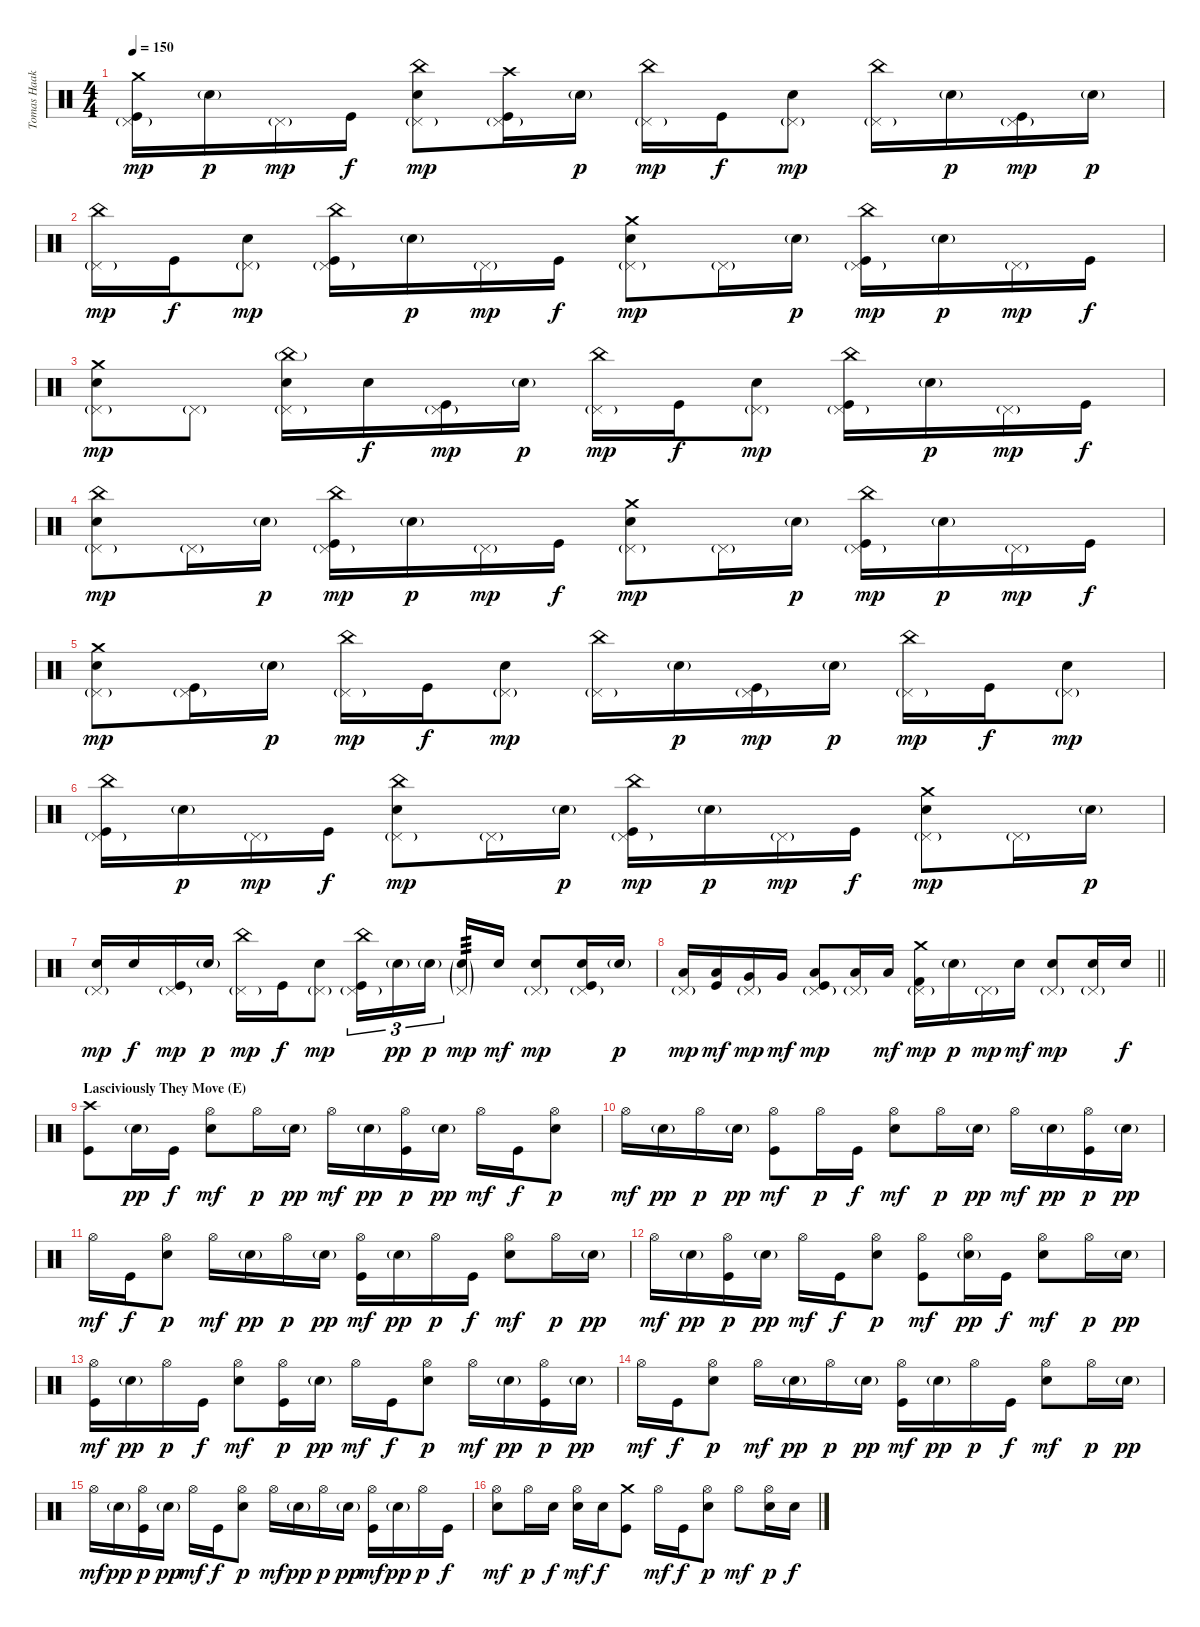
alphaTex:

\track ("Tomas Haake (Drums)" "Tomas Haak") {instrument percussion}
\staff {score}
\articulation defaults
\ts (4 4)
\tempo 150
\clef neutral
\ks c
("Crash medium (hit)" "Pedal Hi-Hat (hit)"{g} "Kick (hit)").16{dy mp} "Electric Snare (hit)"{g}.16{dy p} "Pedal Hi-Hat (hit)"{g}.16{dy mp} "Kick (hit)".16{dy f} ("China (hit)" "Pedal Hi-Hat (hit)"{g} "Electric Snare (hit)").8{dy mp} ("Crash high (hit)" "Pedal Hi-Hat (hit)"{g} "Kick (hit)").16 "Electric Snare (hit)"{g}.16{dy p} ("China (hit)" "Pedal Hi-Hat (hit)"{g}).16{dy mp} "Kick (hit)".16{dy f} ("Pedal Hi-Hat (hit)"{g} "Electric Snare (hit)").8{dy mp} ("China (hit)" "Pedal Hi-Hat (hit)"{g}).16 "Electric Snare (hit)"{g}.16{dy p} ("Pedal Hi-Hat (hit)"{g} "Kick (hit)").16{dy mp} "Electric Snare (hit)"{g}.16{dy p} |
("China (hit)" "Pedal Hi-Hat (hit)"{g}).16{dy mp} "Kick (hit)".16{dy f} ("Pedal Hi-Hat (hit)"{g} "Electric Snare (hit)").8{dy mp} ("China (hit)" "Pedal Hi-Hat (hit)"{g} "Kick (hit)").16 "Electric Snare (hit)"{g}.16{dy p} "Pedal Hi-Hat (hit)"{g}.16{dy mp} "Kick (hit)".16{dy f} ("Crash medium (hit)" "Pedal Hi-Hat (hit)"{g} "Electric Snare (hit)").8{dy mp} "Pedal Hi-Hat (hit)"{g}.16 "Electric Snare (hit)"{g}.16{dy p} ("China (hit)" "Pedal Hi-Hat (hit)"{g} "Kick (hit)").16{dy mp} "Electric Snare (hit)"{g}.16{dy p} "Pedal Hi-Hat (hit)"{g}.16{dy mp} "Kick (hit)".16{dy f} |
("Crash medium (hit)" "Pedal Hi-Hat (hit)"{g} "Electric Snare (hit)").8{dy mp} "Pedal Hi-Hat (hit)"{g}.8 ("China (hit)"{g} "Pedal Hi-Hat (hit)"{g} "Electric Snare (hit)").16 "Electric Snare (hit)".16{dy f} ("Pedal Hi-Hat (hit)"{g} "Kick (hit)").16{dy mp} "Electric Snare (hit)"{g}.16{dy p} ("China (hit)" "Pedal Hi-Hat (hit)"{g}).16{dy mp} "Kick (hit)".16{dy f} ("Pedal Hi-Hat (hit)"{g} "Electric Snare (hit)").8{dy mp} ("China (hit)" "Pedal Hi-Hat (hit)"{g} "Kick (hit)").16 "Electric Snare (hit)"{g}.16{dy p} "Pedal Hi-Hat (hit)"{g}.16{dy mp} "Kick (hit)".16{dy f} |
("China (hit)" "Pedal Hi-Hat (hit)"{g} "Electric Snare (hit)").8{dy mp} "Pedal Hi-Hat (hit)"{g}.16 "Electric Snare (hit)"{g}.16{dy p} ("China (hit)" "Pedal Hi-Hat (hit)"{g} "Kick (hit)").16{dy mp} "Electric Snare (hit)"{g}.16{dy p} "Pedal Hi-Hat (hit)"{g}.16{dy mp} "Kick (hit)".16{dy f} ("Crash medium (hit)" "Pedal Hi-Hat (hit)"{g} "Electric Snare (hit)").8{dy mp} "Pedal Hi-Hat (hit)"{g}.16 "Electric Snare (hit)"{g}.16{dy p} ("China (hit)" "Pedal Hi-Hat (hit)"{g} "Kick (hit)").16{dy mp} "Electric Snare (hit)"{g}.16{dy p} "Pedal Hi-Hat (hit)"{g}.16{dy mp} "Kick (hit)".16{dy f} |
("Crash medium (hit)" "Pedal Hi-Hat (hit)"{g} "Electric Snare (hit)").8{dy mp} ("Pedal Hi-Hat (hit)"{g} "Kick (hit)").16 "Electric Snare (hit)"{g}.16{dy p} ("China (hit)" "Pedal Hi-Hat (hit)"{g}).16{dy mp} "Kick (hit)".16{dy f} ("Pedal Hi-Hat (hit)"{g} "Electric Snare (hit)").8{dy mp} ("China (hit)" "Pedal Hi-Hat (hit)"{g}).16 "Electric Snare (hit)"{g}.16{dy p} ("Pedal Hi-Hat (hit)"{g} "Kick (hit)").16{dy mp} "Electric Snare (hit)"{g}.16{dy p} ("China (hit)" "Pedal Hi-Hat (hit)"{g}).16{dy mp} "Kick (hit)".16{dy f} ("Pedal Hi-Hat (hit)"{g} "Electric Snare (hit)").8{dy mp} |
("China (hit)" "Pedal Hi-Hat (hit)"{g} "Kick (hit)").16 "Electric Snare (hit)"{g}.16{dy p} "Pedal Hi-Hat (hit)"{g}.16{dy mp} "Kick (hit)".16{dy f} ("China (hit)" "Pedal Hi-Hat (hit)"{g} "Electric Snare (hit)").8{dy mp} "Pedal Hi-Hat (hit)"{g}.16 "Electric Snare (hit)"{g}.16{dy p} ("China (hit)" "Pedal Hi-Hat (hit)"{g} "Kick (hit)").16{dy mp} "Electric Snare (hit)"{g}.16{dy p} "Pedal Hi-Hat (hit)"{g}.16{dy mp} "Kick (hit)".16{dy f} ("Crash medium (hit)" "Pedal Hi-Hat (hit)"{g} "Electric Snare (hit)").8{dy mp} "Pedal Hi-Hat (hit)"{g}.16 "Electric Snare (hit)"{g}.16{dy p} |
("Pedal Hi-Hat (hit)"{g} "Electric Snare (hit)").16{dy mp} "Electric Snare (hit)".16{dy f} ("Pedal Hi-Hat (hit)"{g} "Kick (hit)").16{dy mp} "Electric Snare (hit)"{g}.16{dy p} ("China (hit)" "Pedal Hi-Hat (hit)"{g}).16{dy mp} "Kick (hit)".16{dy f} ("Pedal Hi-Hat (hit)"{g} "Electric Snare (hit)").8{dy mp} ("China (hit)" "Pedal Hi-Hat (hit)"{g} "Kick (hit)").16{tu (3 2)} "Electric Snare (hit)"{g}.16{tu (3 2) dy pp} "Electric Snare (hit)"{g}.16{tu (3 2) dy p beam splitsecondary} ("Pedal Hi-Hat (hit)"{g} "Electric Snare (hit)"{g}).16{tp 3 dy mp} "Electric Snare (hit)".16{dy mf} ("Pedal Hi-Hat (hit)"{g} "Electric Snare (hit)").8{dy mp} ("Pedal Hi-Hat (hit)"{g} "Electric Snare (hit)" "Kick (hit)").16 "Electric Snare (hit)"{g}.16{dy p} |
\barLineRight lightlight
("Pedal Hi-Hat (hit)"{g} "Low Tom (hit)").16{dy mp} ("Low Tom (hit)" "Kick (hit)").16{dy mf} ("Pedal Hi-Hat (hit)"{g} "Very Low Tom (hit)").16{dy mp} "Very Low Tom (hit)".16{dy mf} ("Pedal Hi-Hat (hit)"{g} "Low Floor Tom (hit)" "Kick (hit)").8{dy mp} ("Pedal Hi-Hat (hit)"{g} "Low Floor Tom (hit)").16 "Low Floor Tom (hit)".16{dy mf} ("Crash medium (hit)" "Pedal Hi-Hat (hit)"{g} "Kick (hit) 2").16{dy mp} "Electric Snare (hit)"{g}.16{dy p} "Pedal Hi-Hat (hit)"{g}.16{dy mp} "Electric Snare (hit)".16{dy mf} ("Pedal Hi-Hat (hit)"{g} "Electric Snare (hit)").8{dy mp} ("Pedal Hi-Hat (hit)"{g} "Electric Snare (hit)").16 "Electric Snare (hit)".16{dy f} |
\section ("" "Lasciviously They Move (E)")
("Crash high (hit)" "Kick (hit)").8 "Electric Snare (hit)"{g}.16{dy pp} "Kick (hit)".16{dy f} ("Hi-Hat (open)" "Electric Snare (hit)").8{dy mf} "Hi-Hat (open)".16{dy p} "Electric Snare (hit)"{g}.16{dy pp} "Hi-Hat (open)".16{dy mf} "Electric Snare (hit)"{g}.16{dy pp} ("Hi-Hat (open)" "Kick (hit)").16{dy p} "Electric Snare (hit)"{g}.16{dy pp} "Hi-Hat (open)".16{dy mf} "Kick (hit)".16{dy f} ("Hi-Hat (open)" "Electric Snare (hit)").8{dy p} |
"Hi-Hat (open)".16{dy mf} "Electric Snare (hit)"{g}.16{dy pp} "Hi-Hat (open)".16{dy p} "Electric Snare (hit)"{g}.16{dy pp} ("Hi-Hat (open)" "Kick (hit)").8{dy mf} "Hi-Hat (open)".16{dy p} "Kick (hit)".16{dy f} ("Hi-Hat (open)" "Electric Snare (hit)").8{dy mf} "Hi-Hat (open)".16{dy p} "Electric Snare (hit)"{g}.16{dy pp} "Hi-Hat (open)".16{dy mf} "Electric Snare (hit)"{g}.16{dy pp} ("Hi-Hat (open)" "Kick (hit)").16{dy p} "Electric Snare (hit)"{g}.16{dy pp} |
"Hi-Hat (open)".16{dy mf} "Kick (hit)".16{dy f} ("Hi-Hat (open)" "Electric Snare (hit)").8{dy p} "Hi-Hat (open)".16{dy mf} "Electric Snare (hit)"{g}.16{dy pp} "Hi-Hat (open)".16{dy p} "Electric Snare (hit)"{g}.16{dy pp} ("Hi-Hat (open)" "Kick (hit)").16{dy mf} "Electric Snare (hit)"{g}.16{dy pp} "Hi-Hat (open)".16{dy p} "Kick (hit)".16{dy f} ("Hi-Hat (open)" "Electric Snare (hit)").8{dy mf} "Hi-Hat (open)".16{dy p} "Electric Snare (hit)"{g}.16{dy pp} |
"Hi-Hat (open)".16{dy mf} "Electric Snare (hit)"{g}.16{dy pp} ("Hi-Hat (open)" "Kick (hit)").16{dy p} "Electric Snare (hit)"{g}.16{dy pp} "Hi-Hat (open)".16{dy mf} "Kick (hit)".16{dy f} ("Hi-Hat (open)" "Electric Snare (hit)").8{dy p} ("Hi-Hat (open)" "Kick (hit)").8{dy mf} ("Hi-Hat (open)" "Electric Snare (hit)"{g}).16{dy pp} "Kick (hit)".16{dy f} ("Hi-Hat (open)" "Electric Snare (hit)").8{dy mf} "Hi-Hat (open)".16{dy p} "Electric Snare (hit)"{g}.16{dy pp} |
("Hi-Hat (open)" "Kick (hit)").16{dy mf} "Electric Snare (hit)"{g}.16{dy pp} "Hi-Hat (open)".16{dy p} "Kick (hit)".16{dy f} ("Hi-Hat (open)" "Electric Snare (hit)").8{dy mf} ("Hi-Hat (open)" "Kick (hit)").16{dy p} "Electric Snare (hit)"{g}.16{dy pp} "Hi-Hat (open)".16{dy mf} "Kick (hit)".16{dy f} ("Hi-Hat (open)" "Electric Snare (hit)").8{dy p} "Hi-Hat (open)".16{dy mf} "Electric Snare (hit)"{g}.16{dy pp} ("Hi-Hat (open)" "Kick (hit)").16{dy p} "Electric Snare (hit)"{g}.16{dy pp} |
"Hi-Hat (open)".16{dy mf} "Kick (hit)".16{dy f} ("Hi-Hat (open)" "Electric Snare (hit)").8{dy p} "Hi-Hat (open)".16{dy mf} "Electric Snare (hit)"{g}.16{dy pp} "Hi-Hat (open)".16{dy p} "Electric Snare (hit)"{g}.16{dy pp} ("Hi-Hat (open)" "Kick (hit)").16{dy mf} "Electric Snare (hit)"{g}.16{dy pp} "Hi-Hat (open)".16{dy p} "Kick (hit)".16{dy f} ("Hi-Hat (open)" "Electric Snare (hit)").8{dy mf} "Hi-Hat (open)".16{dy p} "Electric Snare (hit)"{g}.16{dy pp} |
"Hi-Hat (open)".16{dy mf} "Electric Snare (hit)"{g}.16{dy pp} ("Hi-Hat (open)" "Kick (hit)").16{dy p} "Electric Snare (hit)"{g}.16{dy pp} "Hi-Hat (open)".16{dy mf} "Kick (hit)".16{dy f} ("Hi-Hat (open)" "Electric Snare (hit)").8{dy p} "Hi-Hat (open)".16{dy mf} "Electric Snare (hit)"{g}.16{dy pp} "Hi-Hat (open)".16{dy p} "Electric Snare (hit)"{g}.16{dy pp} ("Hi-Hat (open)" "Kick (hit)").16{dy mf} "Electric Snare (hit)"{g}.16{dy pp} "Hi-Hat (open)".16{dy p} "Kick (hit)".16{dy f} |
("Hi-Hat (open)" "Electric Snare (hit)").8{dy mf} "Hi-Hat (open)".16{dy p} "Electric Snare (hit)".16{dy f} ("Hi-Hat (open)" "Electric Snare (hit)").16{dy mf} "Electric Snare (hit)".16{dy f} ("Crash medium (hit)" "Kick (hit)").8 "Hi-Hat (open)".16{dy mf} "Kick (hit)".16{dy f} ("Hi-Hat (open)" "Electric Snare (hit)").8{dy p} "Hi-Hat (open)".8{dy mf} ("Hi-Hat (open)" "Electric Snare (hit)").16{dy p} "Electric Snare (hit)".16{dy f}
